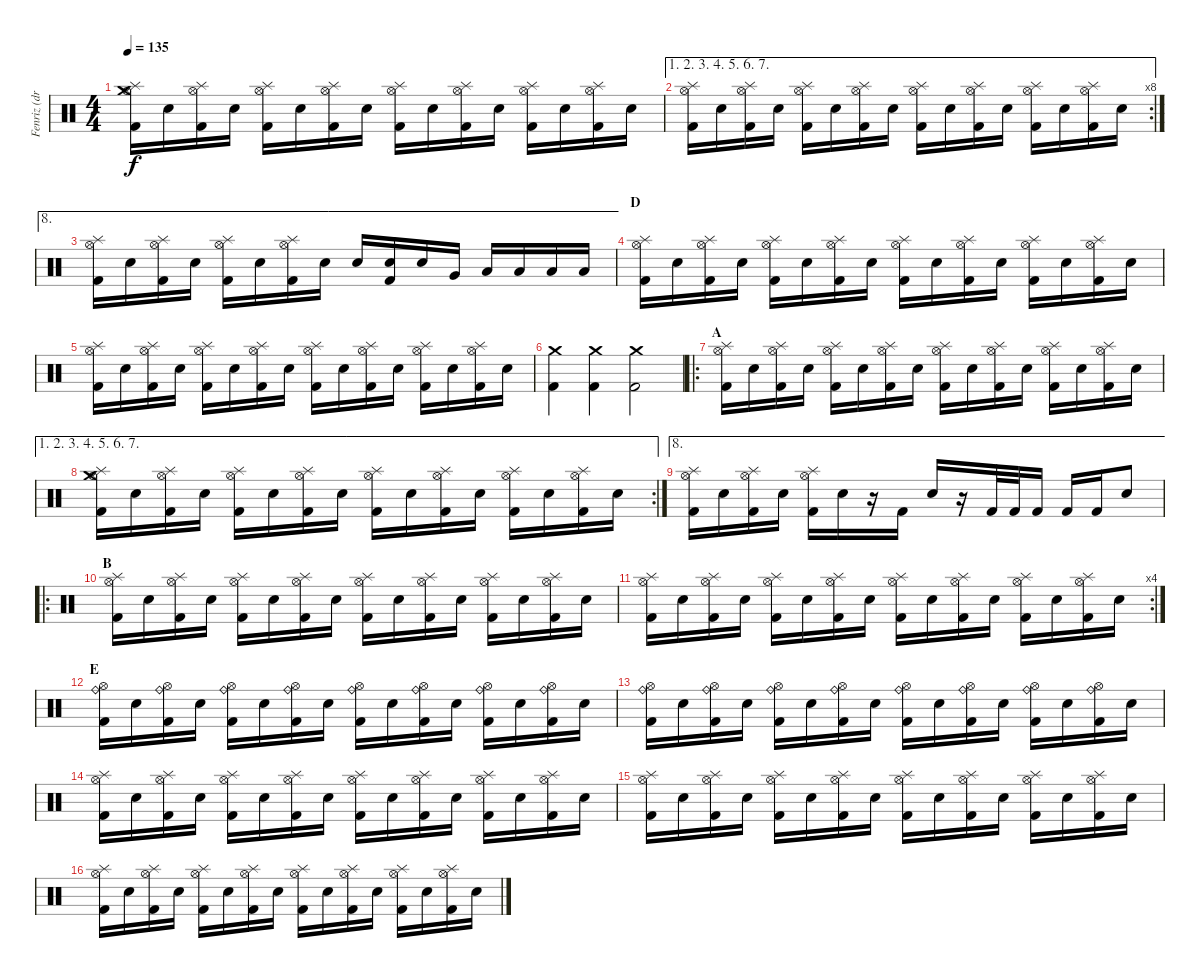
\track ("Fenriz (drums)" "Fenriz (dr") {instrument percussion}
\staff {score}
\articulation defaults
\ts (4 4)
\tempo 135
\clef neutral
\ks c
("Crash medium (hit)" "Hi-Hat (open)" "Splash (hit)" "Kick (hit) 2").16{dy f} "Electric Snare (hit)".16 ("Hi-Hat (open)" "Splash (hit)" "Kick (hit) 2").16 "Electric Snare (hit)".16 ("Hi-Hat (open)" "Splash (hit)" "Kick (hit) 2").16 "Electric Snare (hit)".16 ("Hi-Hat (open)" "Splash (hit)" "Kick (hit) 2").16 "Electric Snare (hit)".16 ("Hi-Hat (open)" "Splash (hit)" "Kick (hit) 2").16 "Electric Snare (hit)".16 ("Hi-Hat (open)" "Splash (hit)" "Kick (hit) 2").16 "Electric Snare (hit)".16 ("Hi-Hat (open)" "Splash (hit)" "Kick (hit) 2").16 "Electric Snare (hit)".16 ("Hi-Hat (open)" "Splash (hit)" "Kick (hit) 2").16 "Electric Snare (hit)".16 |
\ae (1 2 3 4 5 6 7)
\rc 8
("Hi-Hat (open)" "Splash (hit)" "Kick (hit) 2").16 "Electric Snare (hit)".16 ("Hi-Hat (open)" "Splash (hit)" "Kick (hit) 2").16 "Electric Snare (hit)".16 ("Hi-Hat (open)" "Splash (hit)" "Kick (hit) 2").16 "Electric Snare (hit)".16 ("Hi-Hat (open)" "Splash (hit)" "Kick (hit) 2").16 "Electric Snare (hit)".16 ("Hi-Hat (open)" "Splash (hit)" "Kick (hit) 2").16 "Electric Snare (hit)".16 ("Hi-Hat (open)" "Splash (hit)" "Kick (hit) 2").16 "Electric Snare (hit)".16 ("Hi-Hat (open)" "Splash (hit)" "Kick (hit) 2").16 "Electric Snare (hit)".16 ("Hi-Hat (open)" "Splash (hit)" "Kick (hit) 2").16 "Electric Snare (hit)".16 |
\ae 8
("Hi-Hat (open)" "Splash (hit)" "Kick (hit) 2").16 "Electric Snare (hit)".16 ("Hi-Hat (open)" "Splash (hit)" "Kick (hit) 2").16 "Electric Snare (hit)".16 ("Hi-Hat (open)" "Splash (hit)" "Kick (hit) 2").16 "Electric Snare (hit)".16 ("Hi-Hat (open)" "Splash (hit)" "Kick (hit) 2").16 "Electric Snare (hit)".16 "Electric Snare (hit)".16 ("Electric Snare (hit)" "Kick (hit) 2").16 "Electric Snare (hit)".16 "Very Low Tom (hit)".16 "Low Tom (hit)".16 "Low Tom (hit)".16 "Low Tom (hit)".16 "Low Tom (hit)".16 |
\section ("" "D")
("Hi-Hat (open)" "Splash (hit)" "Kick (hit) 2").16 "Electric Snare (hit)".16 ("Hi-Hat (open)" "Splash (hit)" "Kick (hit) 2").16 "Electric Snare (hit)".16 ("Hi-Hat (open)" "Splash (hit)" "Kick (hit) 2").16 "Electric Snare (hit)".16 ("Hi-Hat (open)" "Splash (hit)" "Kick (hit) 2").16 "Electric Snare (hit)".16 ("Hi-Hat (open)" "Splash (hit)" "Kick (hit) 2").16 "Electric Snare (hit)".16 ("Hi-Hat (open)" "Splash (hit)" "Kick (hit) 2").16 "Electric Snare (hit)".16 ("Hi-Hat (open)" "Splash (hit)" "Kick (hit) 2").16 "Electric Snare (hit)".16 ("Hi-Hat (open)" "Splash (hit)" "Kick (hit) 2").16 "Electric Snare (hit)".16 |
("Hi-Hat (open)" "Splash (hit)" "Kick (hit) 2").16 "Electric Snare (hit)".16 ("Hi-Hat (open)" "Splash (hit)" "Kick (hit) 2").16 "Electric Snare (hit)".16 ("Hi-Hat (open)" "Splash (hit)" "Kick (hit) 2").16 "Electric Snare (hit)".16 ("Hi-Hat (open)" "Splash (hit)" "Kick (hit) 2").16 "Electric Snare (hit)".16 ("Hi-Hat (open)" "Splash (hit)" "Kick (hit) 2").16 "Electric Snare (hit)".16 ("Hi-Hat (open)" "Splash (hit)" "Kick (hit) 2").16 "Electric Snare (hit)".16 ("Hi-Hat (open)" "Splash (hit)" "Kick (hit) 2").16 "Electric Snare (hit)".16 ("Hi-Hat (open)" "Splash (hit)" "Kick (hit) 2").16 "Electric Snare (hit)".16 |
("Crash medium (hit)" "Kick (hit) 2").4 ("Crash medium (hit)" "Kick (hit) 2").4 ("Crash medium (hit)" "Kick (hit) 2").2 |
\ro
\section ("" "A")
("Hi-Hat (open)" "Splash (hit)" "Kick (hit) 2").16 "Electric Snare (hit)".16 ("Hi-Hat (open)" "Splash (hit)" "Kick (hit) 2").16 "Electric Snare (hit)".16 ("Hi-Hat (open)" "Splash (hit)" "Kick (hit) 2").16 "Electric Snare (hit)".16 ("Hi-Hat (open)" "Splash (hit)" "Kick (hit) 2").16 "Electric Snare (hit)".16 ("Hi-Hat (open)" "Splash (hit)" "Kick (hit) 2").16 "Electric Snare (hit)".16 ("Hi-Hat (open)" "Splash (hit)" "Kick (hit) 2").16 "Electric Snare (hit)".16 ("Hi-Hat (open)" "Splash (hit)" "Kick (hit) 2").16 "Electric Snare (hit)".16 ("Hi-Hat (open)" "Splash (hit)" "Kick (hit) 2").16 "Electric Snare (hit)".16 |
\ae (1 2 3 4 5 6 7)
\rc 2
("Crash medium (hit)" "Hi-Hat (open)" "Splash (hit)" "Kick (hit) 2").16 "Electric Snare (hit)".16 ("Hi-Hat (open)" "Splash (hit)" "Kick (hit) 2").16 "Electric Snare (hit)".16 ("Hi-Hat (open)" "Splash (hit)" "Kick (hit) 2").16 "Electric Snare (hit)".16 ("Hi-Hat (open)" "Splash (hit)" "Kick (hit) 2").16 "Electric Snare (hit)".16 ("Hi-Hat (open)" "Splash (hit)" "Kick (hit) 2").16 "Electric Snare (hit)".16 ("Hi-Hat (open)" "Splash (hit)" "Kick (hit) 2").16 "Electric Snare (hit)".16 ("Hi-Hat (open)" "Splash (hit)" "Kick (hit) 2").16 "Electric Snare (hit)".16 ("Hi-Hat (open)" "Splash (hit)" "Kick (hit) 2").16 "Electric Snare (hit)".16 |
\ae 8
("Hi-Hat (open)" "Splash (hit)" "Kick (hit) 2").16 "Electric Snare (hit)".16 ("Hi-Hat (open)" "Splash (hit)" "Kick (hit) 2").16 "Electric Snare (hit)".16 ("Hi-Hat (open)" "Splash (hit)" "Kick (hit) 2").16 "Electric Snare (hit)".16 r.16 "Kick (hit) 2".16 "Electric Snare (hit)".16 r.16 "Kick (hit) 2".32 "Kick (hit) 2".32 "Kick (hit) 2".16 "Kick (hit) 2".16 "Kick (hit) 2".16 "Electric Snare (hit)".8 |
\ro
\section ("" "B")
("Hi-Hat (open)" "Splash (hit)" "Kick (hit) 2").16 "Electric Snare (hit)".16 ("Hi-Hat (open)" "Splash (hit)" "Kick (hit) 2").16 "Electric Snare (hit)".16 ("Hi-Hat (open)" "Splash (hit)" "Kick (hit) 2").16 "Electric Snare (hit)".16 ("Hi-Hat (open)" "Splash (hit)" "Kick (hit) 2").16 "Electric Snare (hit)".16 ("Hi-Hat (open)" "Splash (hit)" "Kick (hit) 2").16 "Electric Snare (hit)".16 ("Hi-Hat (open)" "Splash (hit)" "Kick (hit) 2").16 "Electric Snare (hit)".16 ("Hi-Hat (open)" "Splash (hit)" "Kick (hit) 2").16 "Electric Snare (hit)".16 ("Hi-Hat (open)" "Splash (hit)" "Kick (hit) 2").16 "Electric Snare (hit)".16 |
\rc 4
("Hi-Hat (open)" "Splash (hit)" "Kick (hit) 2").16 "Electric Snare (hit)".16 ("Hi-Hat (open)" "Splash (hit)" "Kick (hit) 2").16 "Electric Snare (hit)".16 ("Hi-Hat (open)" "Splash (hit)" "Kick (hit) 2").16 "Electric Snare (hit)".16 ("Hi-Hat (open)" "Splash (hit)" "Kick (hit) 2").16 "Electric Snare (hit)".16 ("Hi-Hat (open)" "Splash (hit)" "Kick (hit) 2").16 "Electric Snare (hit)".16 ("Hi-Hat (open)" "Splash (hit)" "Kick (hit) 2").16 "Electric Snare (hit)".16 ("Hi-Hat (open)" "Splash (hit)" "Kick (hit) 2").16 "Electric Snare (hit)".16 ("Hi-Hat (open)" "Splash (hit)" "Kick (hit) 2").16 "Electric Snare (hit)".16 |
\section ("" "E")
("Hi-Hat (open)" "Ride (bell)" "Kick (hit) 2").16 "Electric Snare (hit)".16 ("Hi-Hat (open)" "Ride (bell)" "Kick (hit) 2").16 "Electric Snare (hit)".16 ("Hi-Hat (open)" "Ride (bell)" "Kick (hit) 2").16 "Electric Snare (hit)".16 ("Hi-Hat (open)" "Ride (bell)" "Kick (hit) 2").16 "Electric Snare (hit)".16 ("Hi-Hat (open)" "Ride (bell)" "Kick (hit) 2").16 "Electric Snare (hit)".16 ("Hi-Hat (open)" "Ride (bell)" "Kick (hit) 2").16 "Electric Snare (hit)".16 ("Hi-Hat (open)" "Ride (bell)" "Kick (hit) 2").16 "Electric Snare (hit)".16 ("Hi-Hat (open)" "Ride (bell)" "Kick (hit) 2").16 "Electric Snare (hit)".16 |
("Hi-Hat (open)" "Ride (bell)" "Kick (hit) 2").16 "Electric Snare (hit)".16 ("Hi-Hat (open)" "Ride (bell)" "Kick (hit) 2").16 "Electric Snare (hit)".16 ("Hi-Hat (open)" "Ride (bell)" "Kick (hit) 2").16 "Electric Snare (hit)".16 ("Hi-Hat (open)" "Ride (bell)" "Kick (hit) 2").16 "Electric Snare (hit)".16 ("Hi-Hat (open)" "Ride (bell)" "Kick (hit) 2").16 "Electric Snare (hit)".16 ("Hi-Hat (open)" "Ride (bell)" "Kick (hit) 2").16 "Electric Snare (hit)".16 ("Hi-Hat (open)" "Ride (bell)" "Kick (hit) 2").16 "Electric Snare (hit)".16 ("Hi-Hat (open)" "Ride (bell)" "Kick (hit) 2").16 "Electric Snare (hit)".16 |
("Hi-Hat (open)" "Splash (hit)" "Kick (hit) 2").16 "Electric Snare (hit)".16 ("Hi-Hat (open)" "Splash (hit)" "Kick (hit) 2").16 "Electric Snare (hit)".16 ("Hi-Hat (open)" "Splash (hit)" "Kick (hit) 2").16 "Electric Snare (hit)".16 ("Hi-Hat (open)" "Splash (hit)" "Kick (hit) 2").16 "Electric Snare (hit)".16 ("Hi-Hat (open)" "Splash (hit)" "Kick (hit) 2").16 "Electric Snare (hit)".16 ("Hi-Hat (open)" "Splash (hit)" "Kick (hit) 2").16 "Electric Snare (hit)".16 ("Hi-Hat (open)" "Splash (hit)" "Kick (hit) 2").16 "Electric Snare (hit)".16 ("Hi-Hat (open)" "Splash (hit)" "Kick (hit) 2").16 "Electric Snare (hit)".16 |
("Hi-Hat (open)" "Splash (hit)" "Kick (hit) 2").16 "Electric Snare (hit)".16 ("Hi-Hat (open)" "Splash (hit)" "Kick (hit) 2").16 "Electric Snare (hit)".16 ("Hi-Hat (open)" "Splash (hit)" "Kick (hit) 2").16 "Electric Snare (hit)".16 ("Hi-Hat (open)" "Splash (hit)" "Kick (hit) 2").16 "Electric Snare (hit)".16 ("Hi-Hat (open)" "Splash (hit)" "Kick (hit) 2").16 "Electric Snare (hit)".16 ("Hi-Hat (open)" "Splash (hit)" "Kick (hit) 2").16 "Electric Snare (hit)".16 ("Hi-Hat (open)" "Splash (hit)" "Kick (hit) 2").16 "Electric Snare (hit)".16 ("Hi-Hat (open)" "Splash (hit)" "Kick (hit) 2").16 "Electric Snare (hit)".16 |
("Hi-Hat (open)" "Splash (hit)" "Kick (hit) 2").16 "Electric Snare (hit)".16 ("Hi-Hat (open)" "Splash (hit)" "Kick (hit) 2").16 "Electric Snare (hit)".16 ("Hi-Hat (open)" "Splash (hit)" "Kick (hit) 2").16 "Electric Snare (hit)".16 ("Hi-Hat (open)" "Splash (hit)" "Kick (hit) 2").16 "Electric Snare (hit)".16 ("Hi-Hat (open)" "Splash (hit)" "Kick (hit) 2").16 "Electric Snare (hit)".16 ("Hi-Hat (open)" "Splash (hit)" "Kick (hit) 2").16 "Electric Snare (hit)".16 ("Hi-Hat (open)" "Splash (hit)" "Kick (hit) 2").16 "Electric Snare (hit)".16 ("Hi-Hat (open)" "Splash (hit)" "Kick (hit) 2").16 "Electric Snare (hit)".16
